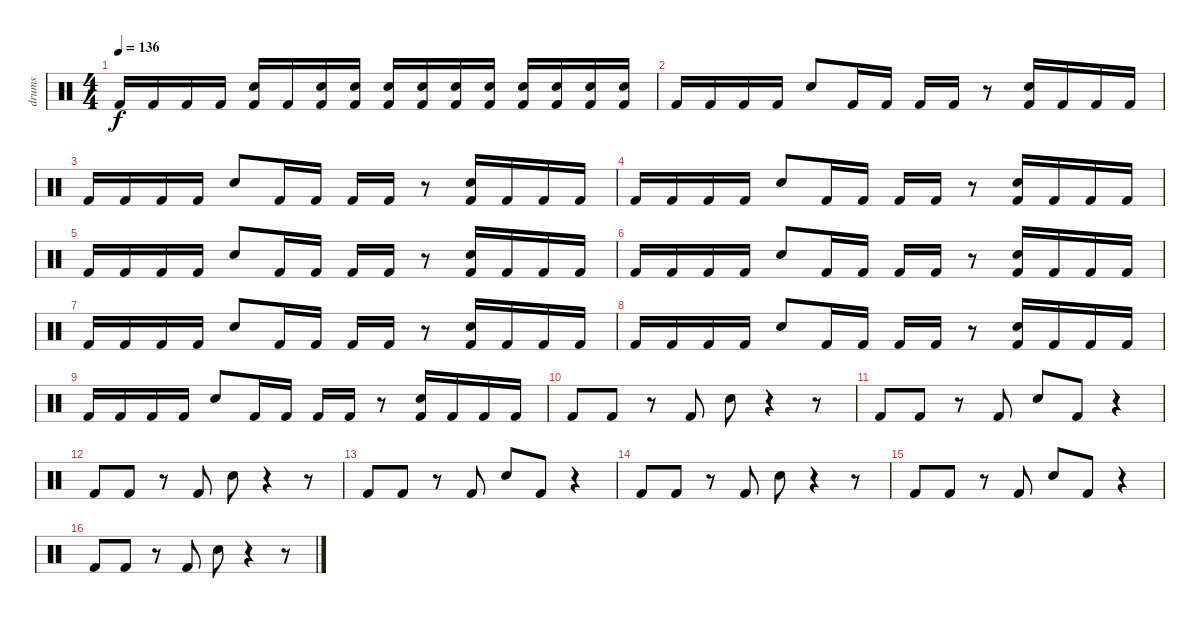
\track ("drums" "drums") {instrument percussion}
\staff {score}
\articulation defaults
\ts (4 4)
\tempo 136
\clef neutral
\ks c "Kick (hit) 2".16{dy f} "Kick (hit) 2".16 "Kick (hit) 2".16 "Kick (hit) 2".16
("Electric Snare (hit)" "Kick (hit) 2").16 "Kick (hit) 2".16 ("Electric Snare (hit)" "Kick (hit) 2").16 ("Electric Snare (hit)" "Kick (hit) 2").16 ("Electric Snare (hit)" "Kick (hit) 2").16 ("Electric Snare (hit)" "Kick (hit) 2").16 ("Electric Snare (hit)" "Kick (hit) 2").16 ("Electric Snare (hit)" "Kick (hit) 2").16 ("Electric Snare (hit)" "Kick (hit) 2").16 ("Electric Snare (hit)" "Kick (hit) 2").16 ("Electric Snare (hit)" "Kick (hit) 2").16 ("Electric Snare (hit)" "Kick (hit) 2").16 |
"Kick (hit) 2".16 "Kick (hit) 2".16 "Kick (hit) 2".16 "Kick (hit) 2".16 "Electric Snare (hit)".8 "Kick (hit) 2".16 "Kick (hit) 2".16 "Kick (hit) 2".16 "Kick (hit) 2".16 r.8 ("Electric Snare (hit)" "Kick (hit) 2").16 "Kick (hit) 2".16 "Kick (hit) 2".16 "Kick (hit) 2".16 |
"Kick (hit) 2".16 "Kick (hit) 2".16 "Kick (hit) 2".16 "Kick (hit) 2".16 "Electric Snare (hit)".8 "Kick (hit) 2".16 "Kick (hit) 2".16 "Kick (hit) 2".16 "Kick (hit) 2".16 r.8 ("Electric Snare (hit)" "Kick (hit) 2").16 "Kick (hit) 2".16 "Kick (hit) 2".16 "Kick (hit) 2".16 |
"Kick (hit) 2".16 "Kick (hit) 2".16 "Kick (hit) 2".16 "Kick (hit) 2".16 "Electric Snare (hit)".8 "Kick (hit) 2".16 "Kick (hit) 2".16 "Kick (hit) 2".16 "Kick (hit) 2".16 r.8 ("Electric Snare (hit)" "Kick (hit) 2").16 "Kick (hit) 2".16 "Kick (hit) 2".16 "Kick (hit) 2".16 |
"Kick (hit) 2".16 "Kick (hit) 2".16 "Kick (hit) 2".16 "Kick (hit) 2".16 "Electric Snare (hit)".8 "Kick (hit) 2".16 "Kick (hit) 2".16 "Kick (hit) 2".16 "Kick (hit) 2".16 r.8 ("Electric Snare (hit)" "Kick (hit) 2").16 "Kick (hit) 2".16 "Kick (hit) 2".16 "Kick (hit) 2".16 |
"Kick (hit) 2".16 "Kick (hit) 2".16 "Kick (hit) 2".16 "Kick (hit) 2".16 "Electric Snare (hit)".8 "Kick (hit) 2".16 "Kick (hit) 2".16 "Kick (hit) 2".16 "Kick (hit) 2".16 r.8 ("Electric Snare (hit)" "Kick (hit) 2").16 "Kick (hit) 2".16 "Kick (hit) 2".16 "Kick (hit) 2".16 |
"Kick (hit) 2".16 "Kick (hit) 2".16 "Kick (hit) 2".16 "Kick (hit) 2".16 "Electric Snare (hit)".8 "Kick (hit) 2".16 "Kick (hit) 2".16 "Kick (hit) 2".16 "Kick (hit) 2".16 r.8 ("Electric Snare (hit)" "Kick (hit) 2").16 "Kick (hit) 2".16 "Kick (hit) 2".16 "Kick (hit) 2".16 |
"Kick (hit) 2".16 "Kick (hit) 2".16 "Kick (hit) 2".16 "Kick (hit) 2".16 "Electric Snare (hit)".8 "Kick (hit) 2".16 "Kick (hit) 2".16 "Kick (hit) 2".16 "Kick (hit) 2".16 r.8 ("Electric Snare (hit)" "Kick (hit) 2").16 "Kick (hit) 2".16 "Kick (hit) 2".16 "Kick (hit) 2".16 |
"Kick (hit) 2".16 "Kick (hit) 2".16 "Kick (hit) 2".16 "Kick (hit) 2".16 "Electric Snare (hit)".8 "Kick (hit) 2".16 "Kick (hit) 2".16 "Kick (hit) 2".16 "Kick (hit) 2".16 r.8 ("Electric Snare (hit)" "Kick (hit) 2").16 "Kick (hit) 2".16 "Kick (hit) 2".16 "Kick (hit) 2".16 |
"Kick (hit) 2".8 "Kick (hit) 2".8 r.8 "Kick (hit) 2".8 "Electric Snare (hit)".8 r.4 r.8 |
"Kick (hit) 2".8 "Kick (hit) 2".8 r.8 "Kick (hit) 2".8 "Electric Snare (hit)".8 "Kick (hit) 2".8 r.4 |
"Kick (hit) 2".8 "Kick (hit) 2".8 r.8 "Kick (hit) 2".8 "Electric Snare (hit)".8 r.4 r.8 |
"Kick (hit) 2".8 "Kick (hit) 2".8 r.8 "Kick (hit) 2".8 "Electric Snare (hit)".8 "Kick (hit) 2".8 r.4 |
"Kick (hit) 2".8 "Kick (hit) 2".8 r.8 "Kick (hit) 2".8 "Electric Snare (hit)".8 r.4 r.8 |
"Kick (hit) 2".8 "Kick (hit) 2".8 r.8 "Kick (hit) 2".8 "Electric Snare (hit)".8 "Kick (hit) 2".8 r.4 |
"Kick (hit) 2".8 "Kick (hit) 2".8 r.8 "Kick (hit) 2".8 "Electric Snare (hit)".8 r.4 r.8
